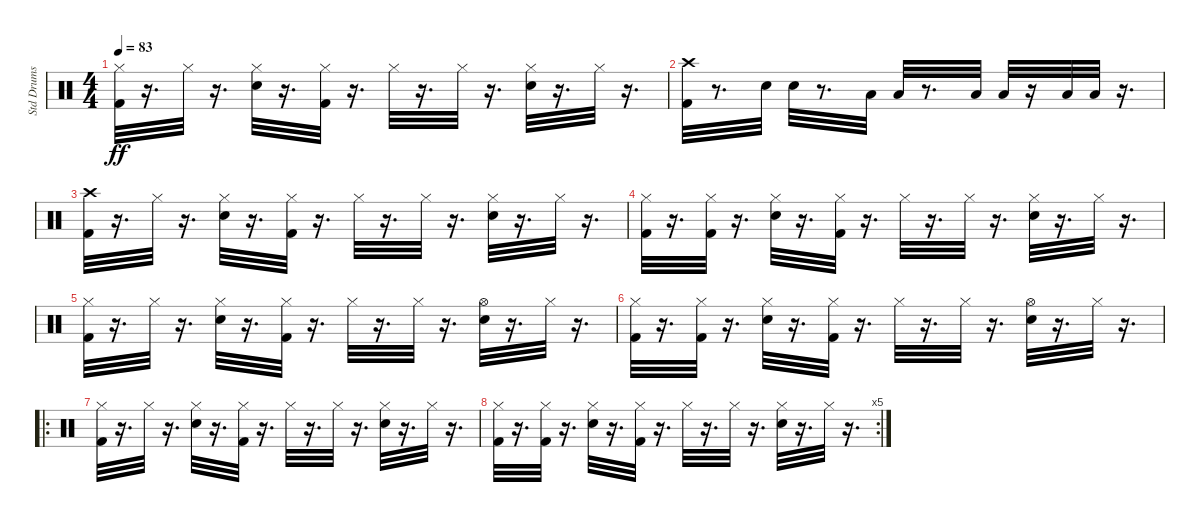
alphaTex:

\track ("Std Drums" "Std Drums") {instrument percussion}
\staff {score}
\articulation defaults
\ts (4 4)
\tempo 83
\clef neutral
\ks c
("Hi-Hat (closed)" "Kick (hit) 2").32{dy ff} r.16{d} "Hi-Hat (closed)".32 r.16{d} ("Snare (hit) 2" "Hi-Hat (closed)").32 r.16{d} ("Kick (hit) 2" "Hi-Hat (closed)").32 r.16{d} "Hi-Hat (closed)".32 r.16{d} "Hi-Hat (closed)".32 r.16{d} ("Hi-Hat (closed)" "Snare (hit) 2").32 r.16{d} "Hi-Hat (closed)".32 r.16{d} |
("Kick (hit) 2" "Crash high (hit)").32 r.8{d} "Snare (hit) 2".32 "Snare (hit) 2".32 r.8{d} "Low Tom (hit)".32 "Low Tom (hit)".32 r.8{d} "Low Floor Tom (hit)".32 "Low Floor Tom (hit)".32 r.16 "Low Floor Tom (hit)".32 "Low Floor Tom (hit)".32 r.16{d} |
("Crash high (hit)" "Kick (hit) 2").32 r.16{d} "Hi-Hat (closed)".32 r.16{d} ("Hi-Hat (closed)" "Snare (hit) 2").32 r.16{d} ("Kick (hit) 2" "Hi-Hat (closed)").32 r.16{d} "Hi-Hat (closed)".32 r.16{d} "Hi-Hat (closed)".32 r.16{d} ("Hi-Hat (closed)" "Snare (hit) 2").32 r.16{d} "Hi-Hat (closed)".32 r.16{d} |
("Hi-Hat (closed)" "Kick (hit) 2").32 r.16{d} ("Kick (hit) 2" "Hi-Hat (closed)").32 r.16{d} ("Hi-Hat (closed)" "Snare (hit) 2").32 r.16{d} ("Kick (hit) 2" "Hi-Hat (closed)").32 r.16{d} "Hi-Hat (closed)".32 r.16{d} "Hi-Hat (closed)".32 r.16{d} ("Hi-Hat (closed)" "Snare (hit) 2").32 r.16{d} "Hi-Hat (closed)".32 r.16{d} |
("Hi-Hat (closed)" "Kick (hit) 2").32 r.16{d} "Hi-Hat (closed)".32 r.16{d} ("Snare (hit) 2" "Hi-Hat (closed)").32 r.16{d} ("Kick (hit) 2" "Hi-Hat (closed)").32 r.16{d} "Hi-Hat (closed)".32 r.16{d} "Hi-Hat (closed)".32 r.16{d} ("Snare (hit) 2" "Hi-Hat (open)").32 r.16{d} "Hi-Hat (closed)".32 r.16{d} |
("Hi-Hat (closed)" "Kick (hit) 2").32 r.16{d} ("Hi-Hat (closed)" "Kick (hit) 2").32 r.16{d} ("Hi-Hat (closed)" "Snare (hit) 2").32 r.16{d} ("Kick (hit) 2" "Hi-Hat (closed)").32 r.16{d} "Hi-Hat (closed)".32 r.16{d} "Hi-Hat (closed)".32 r.16{d} ("Snare (hit) 2" "Hi-Hat (open)").32 r.16{d} "Hi-Hat (closed)".32 r.16{d} |
\ro
("Kick (hit) 2" "Hi-Hat (closed)").32 r.16{d} "Hi-Hat (closed)".32 r.16{d} ("Snare (hit) 2" "Hi-Hat (closed)").32 r.16{d} ("Hi-Hat (closed)" "Kick (hit) 2").32 r.16{d} "Hi-Hat (closed)".32 r.16{d} "Hi-Hat (closed)".32 r.16{d} ("Snare (hit) 2" "Hi-Hat (closed)").32 r.16{d} "Hi-Hat (closed)".32 r.16{d} |
\rc 5
("Hi-Hat (closed)" "Kick (hit) 2").32 r.16{d} ("Kick (hit) 2" "Hi-Hat (closed)").32 r.16{d} ("Hi-Hat (closed)" "Snare (hit) 2").32 r.16{d} ("Hi-Hat (closed)" "Kick (hit) 2").32 r.16{d} "Hi-Hat (closed)".32 r.16{d} "Hi-Hat (closed)".32 r.16{d} ("Hi-Hat (closed)" "Snare (hit) 2").32 r.16{d} "Hi-Hat (closed)".32 r.16{d}
